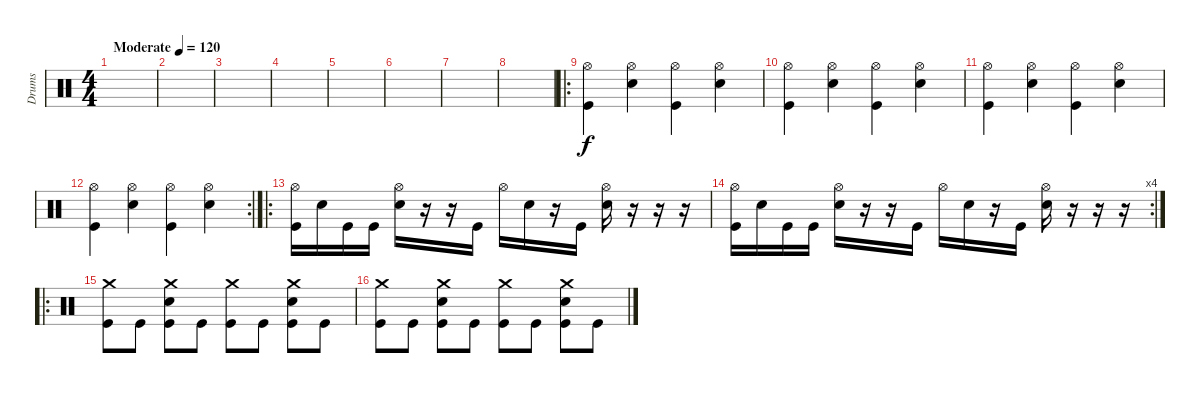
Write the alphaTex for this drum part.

\track ("Drums" "Drums") {instrument percussion}
\staff {score}
\articulation defaults
\ts (4 4)
\tempo (120 "Moderate")
\clef neutral
\ks c
|
|
|
|
|
|
|
|
\ro
("Hi-Hat (open)" "Kick (hit)").4 ("Hi-Hat (open)" "Snare (hit) 2").4 ("Hi-Hat (open)" "Kick (hit)").4 ("Hi-Hat (open)" "Snare (hit) 2").4 |
("Hi-Hat (open)" "Kick (hit)").4 ("Hi-Hat (open)" "Snare (hit) 2").4 ("Hi-Hat (open)" "Kick (hit)").4 ("Hi-Hat (open)" "Snare (hit) 2").4 |
("Hi-Hat (open)" "Kick (hit)").4 ("Hi-Hat (open)" "Snare (hit) 2").4 ("Hi-Hat (open)" "Kick (hit)").4 ("Hi-Hat (open)" "Snare (hit) 2").4 |
\rc 2
("Hi-Hat (open)" "Kick (hit)").4 ("Hi-Hat (open)" "Snare (hit) 2").4 ("Hi-Hat (open)" "Kick (hit)").4 ("Hi-Hat (open)" "Snare (hit) 2").4 |
\ro
("Hi-Hat (open)" "Kick (hit)").16 "Snare (hit) 2".16 "Kick (hit)".16 "Kick (hit)".16 ("Hi-Hat (open)" "Snare (hit) 2").16 r.16 r.16 "Kick (hit)".16 "Hi-Hat (open)".16 "Snare (hit) 2".16 r.16 "Kick (hit)".16 ("Hi-Hat (open)" "Snare (hit) 2").16 r.16 r.16 r.16 |
\rc 4
("Hi-Hat (open)" "Kick (hit)").16 "Snare (hit) 2".16 "Kick (hit)".16 "Kick (hit)".16 ("Hi-Hat (open)" "Snare (hit) 2").16 r.16 r.16 "Kick (hit)".16 "Hi-Hat (open)".16 "Snare (hit) 2".16 r.16 "Kick (hit)".16 ("Hi-Hat (open)" "Snare (hit) 2").16 r.16 r.16 r.16 |
\ro
("Crash medium (hit)" "Kick (hit)").8 "Kick (hit)".8 ("Crash medium (hit)" "Snare (hit) 2" "Kick (hit)").8 "Kick (hit)".8 ("Crash medium (hit)" "Kick (hit)").8 "Kick (hit)".8 ("Crash medium (hit)" "Snare (hit) 2" "Kick (hit)").8 "Kick (hit)".8 |
("Crash medium (hit)" "Kick (hit)").8 "Kick (hit)".8 ("Crash medium (hit)" "Snare (hit) 2" "Kick (hit)").8 "Kick (hit)".8 ("Crash medium (hit)" "Kick (hit)").8 "Kick (hit)".8 ("Crash medium (hit)" "Snare (hit) 2" "Kick (hit)").8 "Kick (hit)".8
